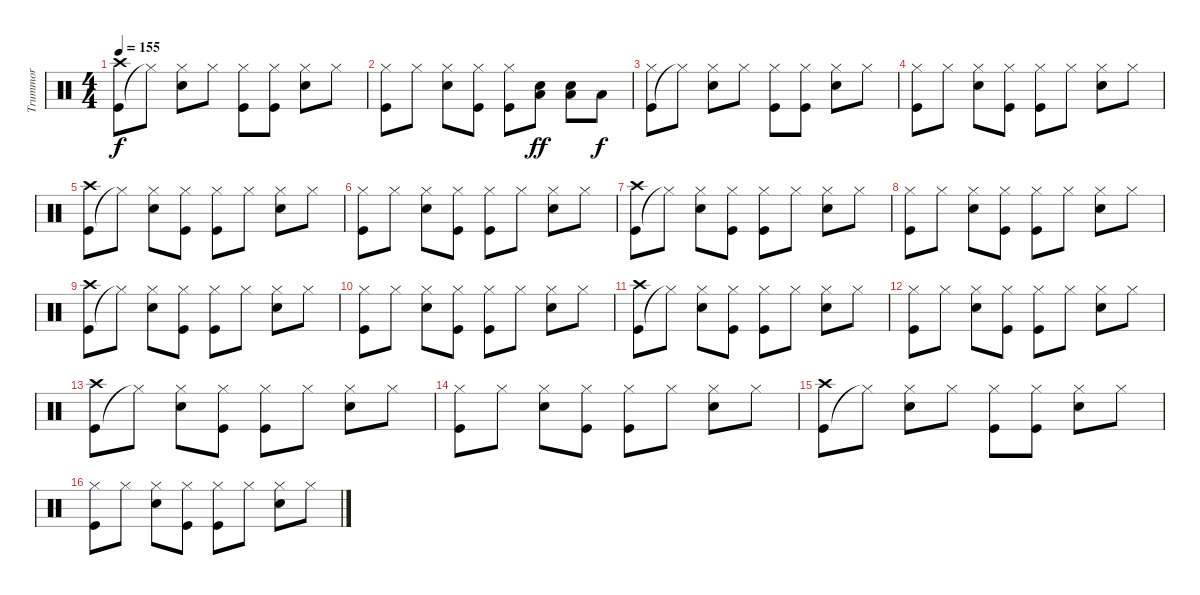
\track ("Trummor" "Trummor") {instrument percussion}
\staff {score}
\articulation defaults
\ts (4 4)
\tempo 155
\clef neutral
\ks c
("Kick (hit)" "Crash high (hit)").8{dy f} "Hi-Hat (closed)"{t}.8 ("Snare (hit) 2" "Hi-Hat (closed)").8 "Hi-Hat (closed)".8 ("Kick (hit)" "Hi-Hat (closed)").8 ("Kick (hit)" "Hi-Hat (closed)").8 ("Snare (hit) 2" "Hi-Hat (closed)").8 "Hi-Hat (closed)".8 |
("Kick (hit)" "Hi-Hat (closed)").8 "Hi-Hat (closed)".8 ("Snare (hit) 2" "Hi-Hat (closed)").8 ("Kick (hit)" "Hi-Hat (closed)").8 ("Kick (hit)" "Hi-Hat (closed)").8 ("Snare (hit) 2" "Low Floor Tom (hit)").8{dy ff} ("Snare (hit) 2" "Low Floor Tom (hit)").8 "Low Floor Tom (hit)".8{dy f} |
("Kick (hit)" "Hi-Hat (closed)").8 "Hi-Hat (closed)"{t}.8 ("Snare (hit) 2" "Hi-Hat (closed)").8 "Hi-Hat (closed)".8 ("Kick (hit)" "Hi-Hat (closed)").8 ("Kick (hit)" "Hi-Hat (closed)").8 ("Snare (hit) 2" "Hi-Hat (closed)").8 "Hi-Hat (closed)".8 |
("Kick (hit)" "Hi-Hat (closed)").8 "Hi-Hat (closed)".8 ("Snare (hit) 2" "Hi-Hat (closed)").8 ("Kick (hit)" "Hi-Hat (closed)").8 ("Kick (hit)" "Hi-Hat (closed)").8 "Hi-Hat (closed)".8 ("Snare (hit) 2" "Hi-Hat (closed)").8 "Hi-Hat (closed)".8 |
("Kick (hit)" "Crash high (hit)").8 "Hi-Hat (closed)"{t}.8 ("Snare (hit) 2" "Hi-Hat (closed)").8 ("Kick (hit)" "Hi-Hat (closed)").8 ("Kick (hit)" "Hi-Hat (closed)").8 "Hi-Hat (closed)".8 ("Snare (hit) 2" "Hi-Hat (closed)").8 "Hi-Hat (closed)".8 |
("Kick (hit)" "Hi-Hat (closed)").8 "Hi-Hat (closed)".8 ("Snare (hit) 2" "Hi-Hat (closed)").8 ("Kick (hit)" "Hi-Hat (closed)").8 ("Kick (hit)" "Hi-Hat (closed)").8 "Hi-Hat (closed)".8 ("Snare (hit) 2" "Hi-Hat (closed)").8 "Hi-Hat (closed)".8 |
("Kick (hit)" "Crash high (hit)").8 "Hi-Hat (closed)"{t}.8 ("Snare (hit) 2" "Hi-Hat (closed)").8 ("Kick (hit)" "Hi-Hat (closed)").8 ("Kick (hit)" "Hi-Hat (closed)").8 "Hi-Hat (closed)".8 ("Snare (hit) 2" "Hi-Hat (closed)").8 "Hi-Hat (closed)".8 |
("Kick (hit)" "Hi-Hat (closed)").8 "Hi-Hat (closed)".8 ("Snare (hit) 2" "Hi-Hat (closed)").8 ("Kick (hit)" "Hi-Hat (closed)").8 ("Kick (hit)" "Hi-Hat (closed)").8 "Hi-Hat (closed)".8 ("Snare (hit) 2" "Hi-Hat (closed)").8 "Hi-Hat (closed)".8 |
("Kick (hit)" "Crash high (hit)").8 "Hi-Hat (closed)"{t}.8 ("Snare (hit) 2" "Hi-Hat (closed)").8 ("Kick (hit)" "Hi-Hat (closed)").8 ("Kick (hit)" "Hi-Hat (closed)").8 "Hi-Hat (closed)".8 ("Snare (hit) 2" "Hi-Hat (closed)").8 "Hi-Hat (closed)".8 |
("Kick (hit)" "Hi-Hat (closed)").8 "Hi-Hat (closed)".8 ("Snare (hit) 2" "Hi-Hat (closed)").8 ("Kick (hit)" "Hi-Hat (closed)").8 ("Kick (hit)" "Hi-Hat (closed)").8 "Hi-Hat (closed)".8 ("Snare (hit) 2" "Hi-Hat (closed)").8 "Hi-Hat (closed)".8 |
("Kick (hit)" "Crash high (hit)").8 "Hi-Hat (closed)"{t}.8 ("Snare (hit) 2" "Hi-Hat (closed)").8 ("Kick (hit)" "Hi-Hat (closed)").8 ("Kick (hit)" "Hi-Hat (closed)").8 "Hi-Hat (closed)".8 ("Snare (hit) 2" "Hi-Hat (closed)").8 "Hi-Hat (closed)".8 |
("Kick (hit)" "Hi-Hat (closed)").8 "Hi-Hat (closed)".8 ("Snare (hit) 2" "Hi-Hat (closed)").8 ("Kick (hit)" "Hi-Hat (closed)").8 ("Kick (hit)" "Hi-Hat (closed)").8 "Hi-Hat (closed)".8 ("Snare (hit) 2" "Hi-Hat (closed)").8 "Hi-Hat (closed)".8 |
("Kick (hit)" "Crash high (hit)").8 "Hi-Hat (closed)"{t}.8 ("Snare (hit) 2" "Hi-Hat (closed)").8 ("Kick (hit)" "Hi-Hat (closed)").8 ("Kick (hit)" "Hi-Hat (closed)").8 "Hi-Hat (closed)".8 ("Snare (hit) 2" "Hi-Hat (closed)").8 "Hi-Hat (closed)".8 |
("Kick (hit)" "Hi-Hat (closed)").8 "Hi-Hat (closed)".8 ("Snare (hit) 2" "Hi-Hat (closed)").8 ("Kick (hit)" "Hi-Hat (closed)").8 ("Kick (hit)" "Hi-Hat (closed)").8 "Hi-Hat (closed)".8 ("Snare (hit) 2" "Hi-Hat (closed)").8 "Hi-Hat (closed)".8 |
("Kick (hit)" "Crash high (hit)").8 "Hi-Hat (closed)"{t}.8 ("Snare (hit) 2" "Hi-Hat (closed)").8 "Hi-Hat (closed)".8 ("Kick (hit)" "Hi-Hat (closed)").8 ("Kick (hit)" "Hi-Hat (closed)").8 ("Snare (hit) 2" "Hi-Hat (closed)").8 "Hi-Hat (closed)".8 |
("Kick (hit)" "Hi-Hat (closed)").8 "Hi-Hat (closed)".8 ("Snare (hit) 2" "Hi-Hat (closed)").8 ("Kick (hit)" "Hi-Hat (closed)").8 ("Kick (hit)" "Hi-Hat (closed)").8 "Hi-Hat (closed)".8 ("Snare (hit) 2" "Hi-Hat (closed)").8 "Hi-Hat (closed)".8
